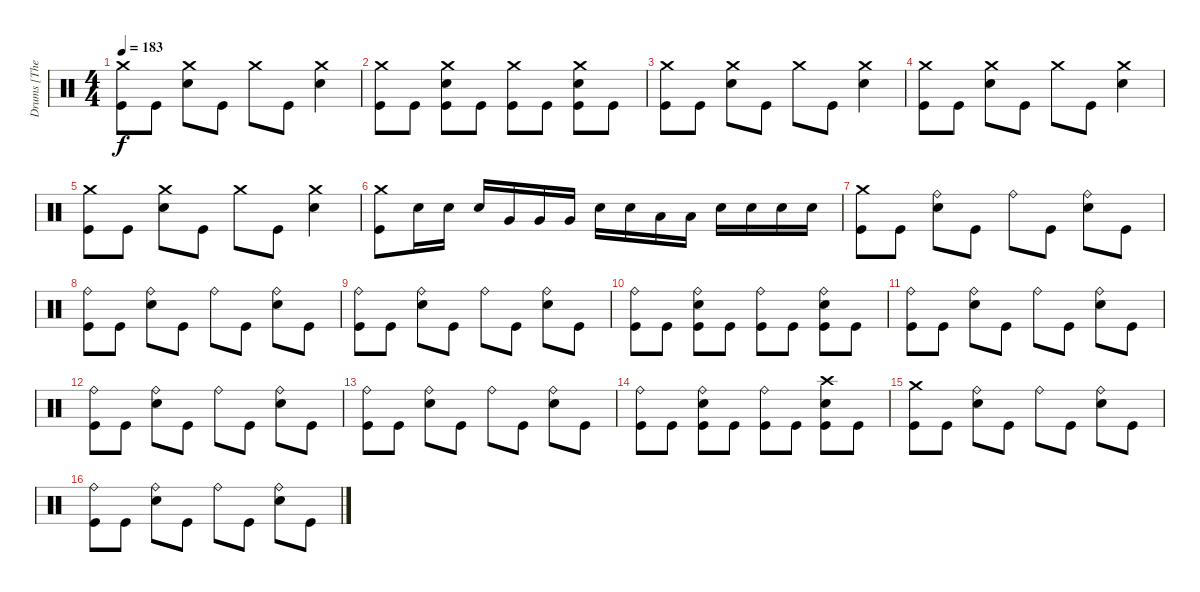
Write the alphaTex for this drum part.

\track ("Drums [The Rev]" "Drums [The") {instrument percussion}
\staff {score}
\articulation defaults
\ts (4 4)
\tempo 183
\clef neutral
\ks c
("Crash medium (hit)" "Kick (hit)").8{dy f} "Kick (hit)".8 ("Crash medium (hit)" "Snare (hit) 2").8 "Kick (hit)".8 "Crash medium (hit)".8 "Kick (hit)".8 ("Crash medium (hit)" "Snare (hit) 2").4 |
("Crash medium (hit)" "Kick (hit)").8 "Kick (hit)".8 ("Crash medium (hit)" "Snare (hit) 2" "Kick (hit)").8 "Kick (hit)".8 ("Crash medium (hit)" "Kick (hit)").8 "Kick (hit)".8 ("Crash medium (hit)" "Snare (hit) 2" "Kick (hit)").8 "Kick (hit)".8 |
("Crash medium (hit)" "Kick (hit)").8 "Kick (hit)".8 ("Crash medium (hit)" "Snare (hit) 2").8 "Kick (hit)".8 "Crash medium (hit)".8 "Kick (hit)".8 ("Crash medium (hit)" "Snare (hit) 2").4 |
("Crash medium (hit)" "Kick (hit)").8 "Kick (hit)".8 ("Crash medium (hit)" "Snare (hit) 2").8 "Kick (hit)".8 "Crash medium (hit)".8 "Kick (hit)".8 ("Crash medium (hit)" "Snare (hit) 2").4 |
("Crash medium (hit)" "Kick (hit)").8 "Kick (hit)".8 ("Crash medium (hit)" "Snare (hit)").8 "Kick (hit)".8 "Crash medium (hit)".8 "Kick (hit)".8 ("Crash medium (hit)" "Snare (hit) 2").4 |
("Crash medium (hit)" "Kick (hit)").8 "Snare (hit) 2".16 "Snare (hit) 2".16 "Snare (hit) 2".16 "Very Low Tom (hit)".16 "Very Low Tom (hit)".16 "Very Low Tom (hit)".16 "Snare (hit) 2".16 "Snare (hit) 2".16 "Low Floor Tom (hit)".16 "Low Floor Tom (hit)".16 "Snare (hit) 2".16 "Snare (hit) 2".16 "Snare (hit) 2".16 "Snare (hit) 2".16 |
("Crash medium (hit)" "Kick (hit)").8 "Kick (hit)".8 ("Ride (bell)" "Snare (hit) 2").8 "Kick (hit)".8 "Ride (bell)".8 "Kick (hit)".8 ("Ride (bell)" "Snare (hit) 2").8 "Kick (hit)".8 |
("Ride (bell)" "Kick (hit)").8 "Kick (hit)".8 ("Ride (bell)" "Snare (hit) 2").8 "Kick (hit)".8 "Ride (bell)".8 "Kick (hit)".8 ("Ride (bell)" "Snare (hit) 2").8 "Kick (hit)".8 |
("Ride (bell)" "Kick (hit)").8 "Kick (hit)".8 ("Ride (bell)" "Snare (hit) 2").8 "Kick (hit)".8 "Ride (bell)".8 "Kick (hit)".8 ("Ride (bell)" "Snare (hit) 2").8 "Kick (hit)".8 |
("Ride (bell)" "Kick (hit)").8 "Kick (hit)".8 ("Ride (bell)" "Snare (hit) 2" "Kick (hit)").8 "Kick (hit)".8 ("Ride (bell)" "Kick (hit)").8 "Kick (hit)".8 ("Ride (bell)" "Snare (hit) 2" "Kick (hit)").8 "Kick (hit)".8 |
("Ride (bell)" "Kick (hit)").8 "Kick (hit)".8 ("Ride (bell)" "Snare (hit) 2").8 "Kick (hit)".8 "Ride (bell)".8 "Kick (hit)".8 ("Ride (bell)" "Snare (hit) 2").8 "Kick (hit)".8 |
("Ride (bell)" "Kick (hit)").8 "Kick (hit)".8 ("Ride (bell)" "Snare (hit) 2").8 "Kick (hit)".8 "Ride (bell)".8 "Kick (hit)".8 ("Ride (bell)" "Snare (hit) 2").8 "Kick (hit)".8 |
("Ride (bell)" "Kick (hit)").8 "Kick (hit)".8 ("Ride (bell)" "Snare (hit) 2").8 "Kick (hit)".8 "Ride (bell)".8 "Kick (hit)".8 ("Ride (bell)" "Snare (hit) 2").8 "Kick (hit)".8 |
("Ride (bell)" "Kick (hit)").8 "Kick (hit)".8 ("Ride (bell)" "Snare (hit) 2" "Kick (hit)").8 "Kick (hit)".8 ("Ride (bell)" "Kick (hit)").8 "Kick (hit)".8 ("Crash high (hit)" "Snare (hit) 2" "Kick (hit)").8 "Kick (hit)".8 |
("Crash medium (hit)" "Kick (hit)").8 "Kick (hit)".8 ("Ride (bell)" "Snare (hit) 2").8 "Kick (hit)".8 "Ride (bell)".8 "Kick (hit)".8 ("Ride (bell)" "Snare (hit) 2").8 "Kick (hit)".8 |
("Ride (bell)" "Kick (hit)").8 "Kick (hit)".8 ("Ride (bell)" "Snare (hit) 2").8 "Kick (hit)".8 "Ride (bell)".8 "Kick (hit)".8 ("Ride (bell)" "Snare (hit) 2").8 "Kick (hit)".8
